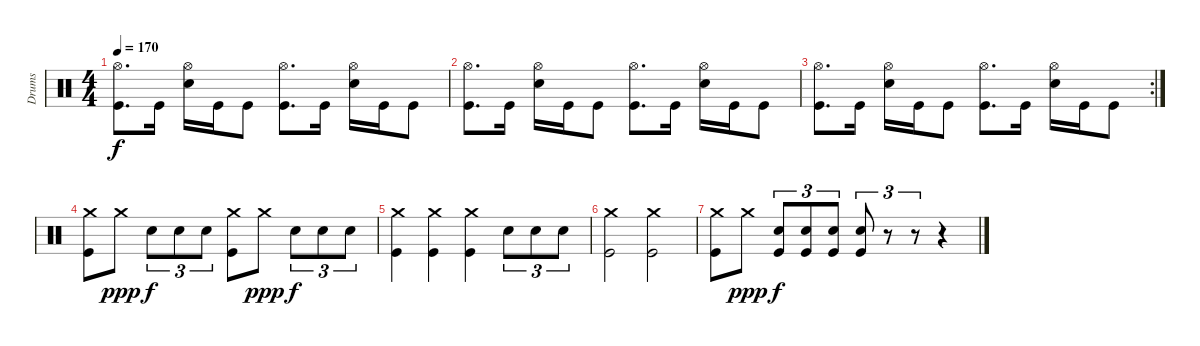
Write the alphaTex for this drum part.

\track ("Drums" "Drums") {instrument percussion}
\staff {score}
\articulation defaults
\ts (4 4)
\tempo 170
\clef neutral
\ks c
("Hi-Hat (open)" "Kick (hit)").8{d dy f} "Kick (hit)".16 ("Hi-Hat (open)" "Snare (hit) 2").16 "Kick (hit)".16 "Kick (hit)".8 ("Hi-Hat (open)" "Kick (hit)").8{d} "Kick (hit)".16 ("Hi-Hat (open)" "Snare (hit) 2").16 "Kick (hit)".16 "Kick (hit)".8 |
("Hi-Hat (open)" "Kick (hit)").8{d} "Kick (hit)".16 ("Hi-Hat (open)" "Snare (hit) 2").16 "Kick (hit)".16 "Kick (hit)".8 ("Hi-Hat (open)" "Kick (hit)").8{d} "Kick (hit)".16 ("Hi-Hat (open)" "Snare (hit) 2").16 "Kick (hit)".16 "Kick (hit)".8 |
\rc 2
("Hi-Hat (open)" "Kick (hit)").8{d} "Kick (hit)".16 ("Hi-Hat (open)" "Snare (hit) 2").16 "Kick (hit)".16 "Kick (hit)".8 ("Hi-Hat (open)" "Kick (hit)").8{d} "Kick (hit)".16 ("Hi-Hat (open)" "Snare (hit) 2").16 "Kick (hit)".16 "Kick (hit)".8 |
("Crash medium (hit)" "Kick (hit)").8 "Crash medium (hit)".8{dy ppp} "Snare (hit) 2".8{tu (3 2) dy f} "Snare (hit) 2".8{tu (3 2)} "Snare (hit) 2".8{tu (3 2)} ("Crash medium (hit)" "Kick (hit)").8 "Crash medium (hit)".8{dy ppp} "Snare (hit) 2".8{tu (3 2) dy f} "Snare (hit) 2".8{tu (3 2)} "Snare (hit) 2".8{tu (3 2)} |
("Crash medium (hit)" "Kick (hit)").4 ("Crash medium (hit)" "Kick (hit)").4 ("Crash medium (hit)" "Kick (hit)").4 "Snare (hit) 2".8{tu (3 2)} "Snare (hit) 2".8{tu (3 2)} "Snare (hit) 2".8{tu (3 2)} |
("Crash medium (hit)" "Kick (hit)").2 ("Crash medium (hit)" "Kick (hit)").2 |
("Crash medium (hit)" "Kick (hit)").8 "Crash medium (hit)".8{dy ppp} ("Snare (hit) 2" "Kick (hit)").8{tu (3 2) dy f} ("Snare (hit) 2" "Kick (hit)").8{tu (3 2)} ("Snare (hit) 2" "Kick (hit)").8{tu (3 2)} ("Snare (hit) 2" "Kick (hit)").8{tu (3 2)} r.8{tu (3 2)} r.8{tu (3 2)} r.4
